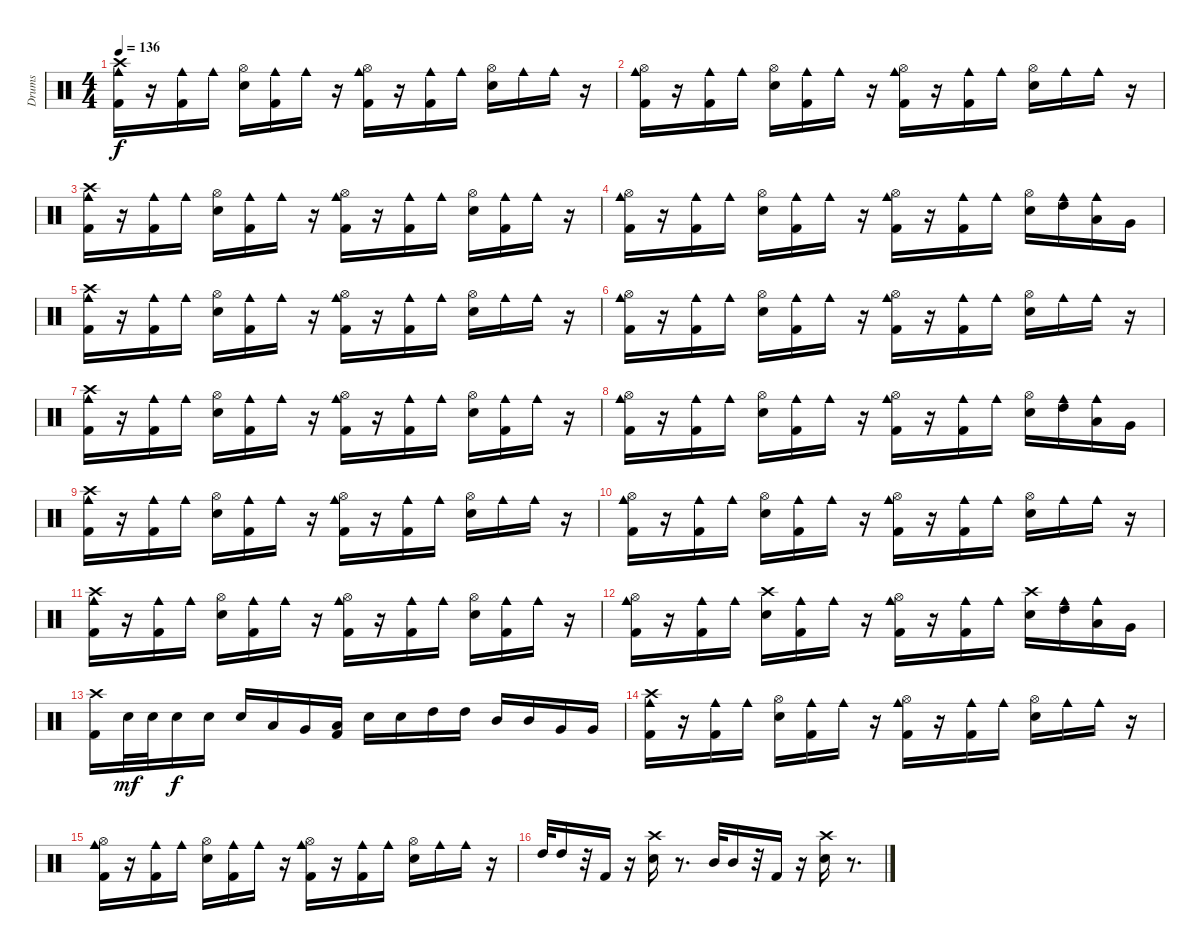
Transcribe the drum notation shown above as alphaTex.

\track ("Drums" "Drums") {instrument percussion}
\staff {score}
\articulation defaults
\ts (4 4)
\tempo 136
\clef neutral
\ks c
("Cowbell medium (hit)" "Kick (hit) 2" "Crash high (hit)").16{dy f} r.16 ("Cowbell medium (hit)" "Kick (hit) 2").16 "Cowbell medium (hit)".16 ("Metronome (bell)" "Hi-Hat (open)").16 ("Cowbell medium (hit)" "Kick (hit) 2").16 "Cowbell medium (hit)".16 r.16 ("Kick (hit) 2" "Cowbell medium (hit)" "Hi-Hat (open)").16 r.16 ("Cowbell medium (hit)" "Kick (hit) 2").16 "Cowbell medium (hit)".16 ("Metronome (bell)" "Hi-Hat (open)").16 "Cowbell medium (hit)".16 "Cowbell medium (hit)".16 r.16 |
("Kick (hit) 2" "Cowbell medium (hit)" "Hi-Hat (open)").16 r.16 ("Kick (hit) 2" "Cowbell medium (hit)").16 "Cowbell medium (hit)".16 ("Metronome (bell)" "Hi-Hat (open)").16 ("Cowbell medium (hit)" "Kick (hit) 2").16 "Cowbell medium (hit)".16 r.16 ("Kick (hit) 2" "Cowbell medium (hit)" "Hi-Hat (open)").16 r.16 ("Kick (hit) 2" "Cowbell medium (hit)").16 "Cowbell medium (hit)".16 ("Metronome (bell)" "Hi-Hat (open)").16 "Cowbell medium (hit)".16 "Cowbell medium (hit)".16 r.16 |
("Cowbell medium (hit)" "Kick (hit) 2" "Crash high (hit)").16 r.16 ("Cowbell medium (hit)" "Kick (hit) 2").16 "Cowbell medium (hit)".16 ("Metronome (bell)" "Hi-Hat (open)").16 ("Cowbell medium (hit)" "Kick (hit) 2").16 "Cowbell medium (hit)".16 r.16 ("Kick (hit) 2" "Cowbell medium (hit)" "Hi-Hat (open)").16 r.16 ("Cowbell medium (hit)" "Kick (hit) 2").16 "Cowbell medium (hit)".16 ("Metronome (bell)" "Hi-Hat (open)").16 ("Cowbell medium (hit)" "Kick (hit) 2").16 "Cowbell medium (hit)".16 r.16 |
("Kick (hit) 2" "Cowbell medium (hit)" "Hi-Hat (open)").16 r.16 ("Kick (hit) 2" "Cowbell medium (hit)").16 "Cowbell medium (hit)".16 ("Metronome (bell)" "Hi-Hat (open)").16 ("Cowbell medium (hit)" "Kick (hit) 2").16 "Cowbell medium (hit)".16 r.16 ("Kick (hit) 2" "Cowbell medium (hit)" "Hi-Hat (open)").16 r.16 ("Kick (hit) 2" "Cowbell medium (hit)").16 "Cowbell medium (hit)".16 ("Metronome (bell)" "Hi-Hat (open)").16 ("Cowbell medium (hit)" "High Tom (hit)").16 ("Cowbell medium (hit)" "Low Tom (hit)").16 "Very Low Tom (hit)".16 |
("Cowbell medium (hit)" "Kick (hit) 2" "Crash high (hit)").16 r.16 ("Cowbell medium (hit)" "Kick (hit) 2").16 "Cowbell medium (hit)".16 ("Metronome (bell)" "Hi-Hat (open)").16 ("Cowbell medium (hit)" "Kick (hit) 2").16 "Cowbell medium (hit)".16 r.16 ("Kick (hit) 2" "Cowbell medium (hit)" "Hi-Hat (open)").16 r.16 ("Cowbell medium (hit)" "Kick (hit) 2").16 "Cowbell medium (hit)".16 ("Metronome (bell)" "Hi-Hat (open)").16 "Cowbell medium (hit)".16 "Cowbell medium (hit)".16 r.16 |
("Kick (hit) 2" "Cowbell medium (hit)" "Hi-Hat (open)").16 r.16 ("Kick (hit) 2" "Cowbell medium (hit)").16 "Cowbell medium (hit)".16 ("Metronome (bell)" "Hi-Hat (open)").16 ("Cowbell medium (hit)" "Kick (hit) 2").16 "Cowbell medium (hit)".16 r.16 ("Kick (hit) 2" "Cowbell medium (hit)" "Hi-Hat (open)").16 r.16 ("Kick (hit) 2" "Cowbell medium (hit)").16 "Cowbell medium (hit)".16 ("Metronome (bell)" "Hi-Hat (open)").16 "Cowbell medium (hit)".16 "Cowbell medium (hit)".16 r.16 |
("Cowbell medium (hit)" "Kick (hit) 2" "Crash high (hit)").16 r.16 ("Cowbell medium (hit)" "Kick (hit) 2").16 "Cowbell medium (hit)".16 ("Metronome (bell)" "Hi-Hat (open)").16 ("Cowbell medium (hit)" "Kick (hit) 2").16 "Cowbell medium (hit)".16 r.16 ("Kick (hit) 2" "Cowbell medium (hit)" "Hi-Hat (open)").16 r.16 ("Cowbell medium (hit)" "Kick (hit) 2").16 "Cowbell medium (hit)".16 ("Metronome (bell)" "Hi-Hat (open)").16 ("Cowbell medium (hit)" "Kick (hit) 2").16 "Cowbell medium (hit)".16 r.16 |
("Kick (hit) 2" "Cowbell medium (hit)" "Hi-Hat (open)").16 r.16 ("Kick (hit) 2" "Cowbell medium (hit)").16 "Cowbell medium (hit)".16 ("Metronome (bell)" "Hi-Hat (open)").16 ("Cowbell medium (hit)" "Kick (hit) 2").16 "Cowbell medium (hit)".16 r.16 ("Kick (hit) 2" "Cowbell medium (hit)" "Hi-Hat (open)").16 r.16 ("Kick (hit) 2" "Cowbell medium (hit)").16 "Cowbell medium (hit)".16 ("Metronome (bell)" "Hi-Hat (open)").16 ("Cowbell medium (hit)" "High Tom (hit)").16 ("Cowbell medium (hit)" "Low Tom (hit)").16 "Very Low Tom (hit)".16 |
("Cowbell medium (hit)" "Kick (hit) 2" "Crash high (hit)").16 r.16 ("Cowbell medium (hit)" "Kick (hit) 2").16 "Cowbell medium (hit)".16 ("Metronome (bell)" "Hi-Hat (open)").16 ("Cowbell medium (hit)" "Kick (hit) 2").16 "Cowbell medium (hit)".16 r.16 ("Kick (hit) 2" "Cowbell medium (hit)" "Hi-Hat (open)").16 r.16 ("Cowbell medium (hit)" "Kick (hit) 2").16 "Cowbell medium (hit)".16 ("Metronome (bell)" "Hi-Hat (open)").16 "Cowbell medium (hit)".16 "Cowbell medium (hit)".16 r.16 |
("Kick (hit) 2" "Cowbell medium (hit)" "Hi-Hat (open)").16 r.16 ("Kick (hit) 2" "Cowbell medium (hit)").16 "Cowbell medium (hit)".16 ("Metronome (bell)" "Hi-Hat (open)").16 ("Cowbell medium (hit)" "Kick (hit) 2").16 "Cowbell medium (hit)".16 r.16 ("Kick (hit) 2" "Cowbell medium (hit)" "Hi-Hat (open)").16 r.16 ("Kick (hit) 2" "Cowbell medium (hit)").16 "Cowbell medium (hit)".16 ("Metronome (bell)" "Hi-Hat (open)").16 "Cowbell medium (hit)".16 "Cowbell medium (hit)".16 r.16 |
("Cowbell medium (hit)" "Kick (hit) 2" "Crash high (hit)").16 r.16 ("Cowbell medium (hit)" "Kick (hit) 2").16 "Cowbell medium (hit)".16 ("Metronome (bell)" "Hi-Hat (open)").16 ("Cowbell medium (hit)" "Kick (hit) 2").16 "Cowbell medium (hit)".16 r.16 ("Kick (hit) 2" "Cowbell medium (hit)" "Hi-Hat (open)").16 r.16 ("Cowbell medium (hit)" "Kick (hit) 2").16 "Cowbell medium (hit)".16 ("Metronome (bell)" "Hi-Hat (open)").16 ("Cowbell medium (hit)" "Kick (hit) 2").16 "Cowbell medium (hit)".16 r.16 |
("Kick (hit) 2" "Cowbell medium (hit)" "Hi-Hat (open)").16 r.16 ("Kick (hit) 2" "Cowbell medium (hit)").16 "Cowbell medium (hit)".16 ("Metronome (bell)" "Crash high (hit)").16 ("Cowbell medium (hit)" "Kick (hit) 2").16 "Cowbell medium (hit)".16 r.16 ("Kick (hit) 2" "Cowbell medium (hit)" "Hi-Hat (open)").16 r.16 ("Kick (hit) 2" "Cowbell medium (hit)").16 "Cowbell medium (hit)".16 ("Metronome (bell)" "Crash high (hit)").16 ("Cowbell medium (hit)" "High Tom (hit)").16 ("Cowbell medium (hit)" "Low Tom (hit)").16 "Very Low Tom (hit)".16 |
("Crash high (hit)" "Kick (hit) 2").16 "Metronome (bell)".32{dy mf} "Metronome (bell)".32 "Metronome (bell)".16{dy f} "Metronome (bell)".16 "Metronome (bell)".16 "Low Tom (hit)".16 "Very Low Tom (hit)".16 ("Kick (hit) 2" "Low Floor Tom (hit)").16 "Metronome (bell)".16 "Metronome (bell)".16 "High Tom (hit)".16 "High Tom (hit)".16 "Mid Tom (hit)".16 "Mid Tom (hit)".16 "Very Low Tom (hit)".16 "Very Low Tom (hit)".16 |
("Cowbell medium (hit)" "Kick (hit) 2" "Crash high (hit)").16 r.16 ("Cowbell medium (hit)" "Kick (hit) 2").16 "Cowbell medium (hit)".16 ("Metronome (bell)" "Hi-Hat (open)").16 ("Cowbell medium (hit)" "Kick (hit) 2").16 "Cowbell medium (hit)".16 r.16 ("Kick (hit) 2" "Cowbell medium (hit)" "Hi-Hat (open)").16 r.16 ("Cowbell medium (hit)" "Kick (hit) 2").16 "Cowbell medium (hit)".16 ("Metronome (bell)" "Hi-Hat (open)").16 "Cowbell medium (hit)".16 "Cowbell medium (hit)".16 r.16 |
("Kick (hit) 2" "Cowbell medium (hit)" "Hi-Hat (open)").16 r.16 ("Kick (hit) 2" "Cowbell medium (hit)").16 "Cowbell medium (hit)".16 ("Metronome (bell)" "Hi-Hat (open)").16 ("Cowbell medium (hit)" "Kick (hit) 2").16 "Cowbell medium (hit)".16 r.16 ("Kick (hit) 2" "Cowbell medium (hit)" "Hi-Hat (open)").16 r.16 ("Kick (hit) 2" "Cowbell medium (hit)").16 "Cowbell medium (hit)".16 ("Metronome (bell)" "Hi-Hat (open)").16 "Cowbell medium (hit)".16 "Cowbell medium (hit)".16 r.16 |
"High Tom (hit)".32 "High Tom (hit)".16 r.32 "Kick (hit) 2".16 r.16 ("Metronome (bell)" "Crash high (hit)").16 r.8{d} "Mid Tom (hit)".32 "Mid Tom (hit)".16 r.32 "Kick (hit) 2".16 r.16 ("Metronome (bell)" "Crash high (hit)").16 r.8{d}
